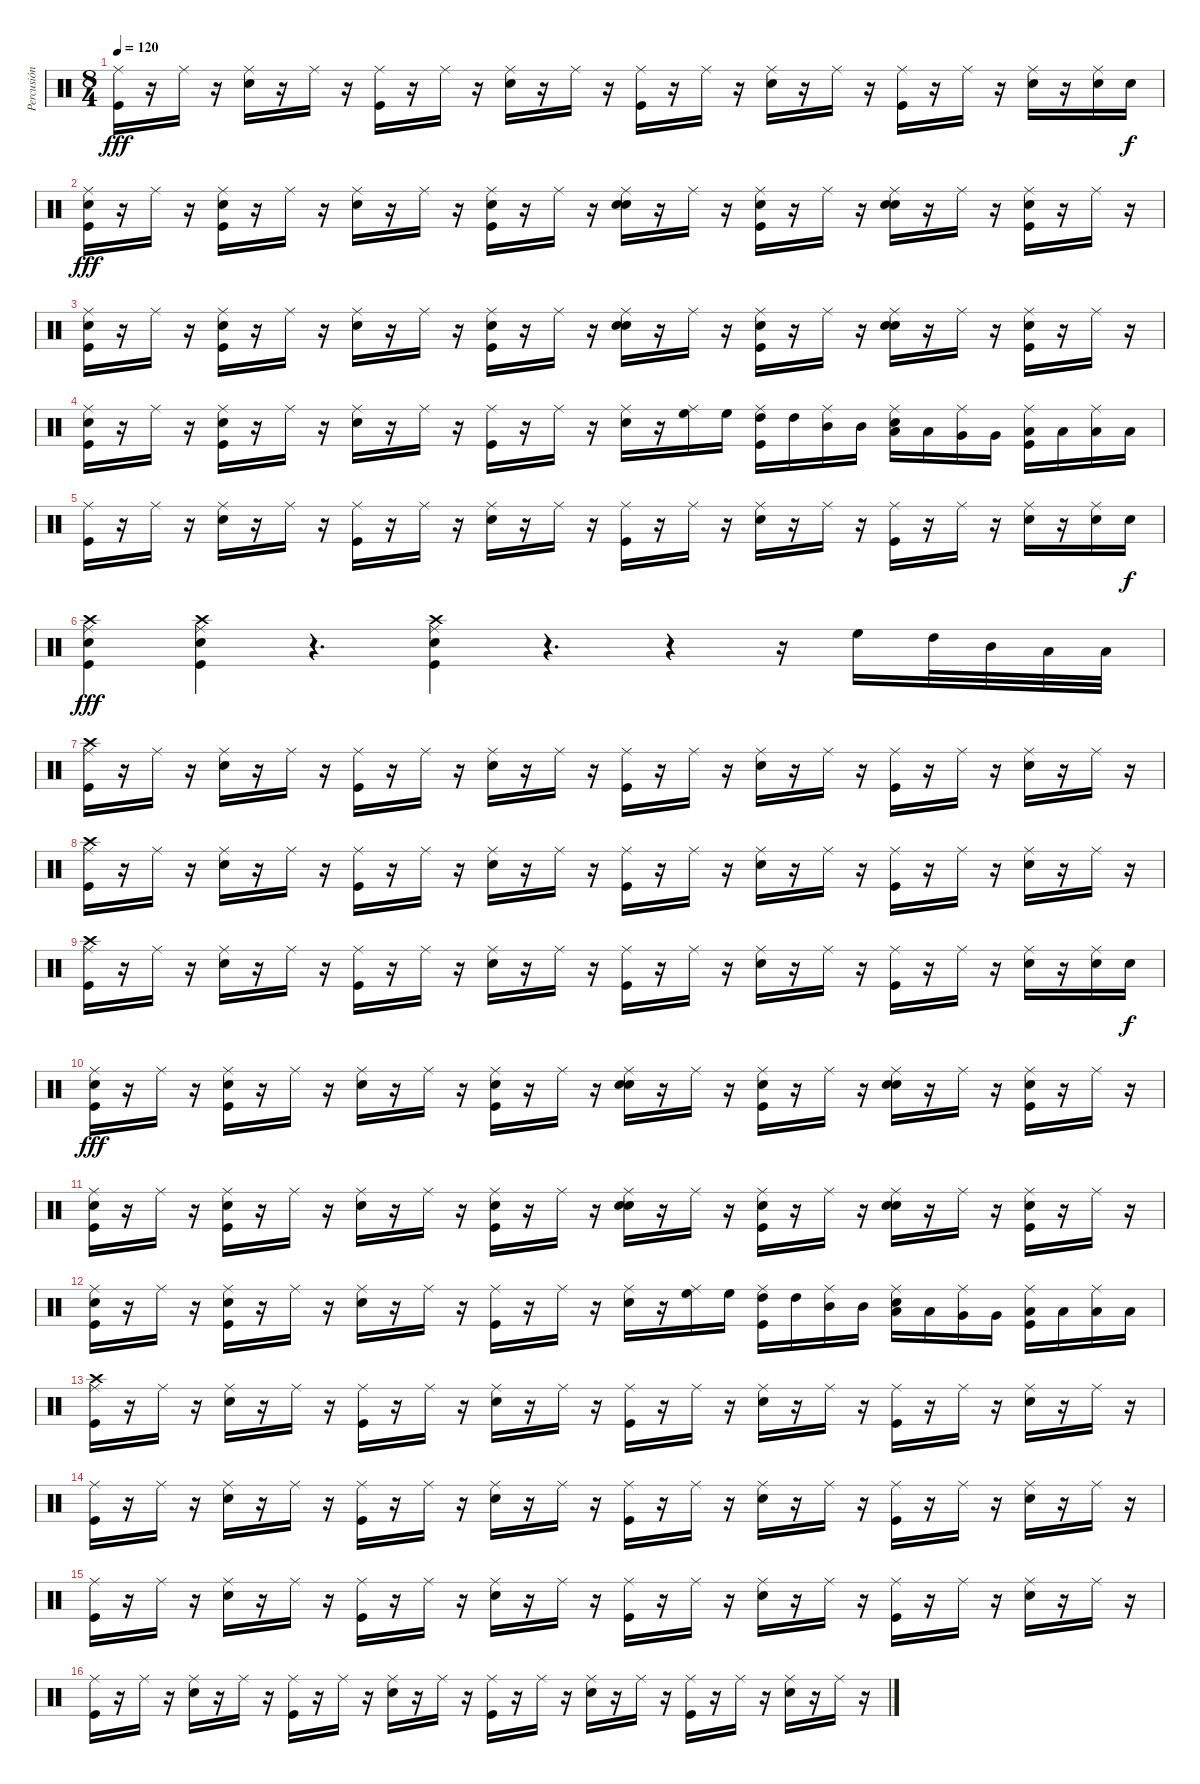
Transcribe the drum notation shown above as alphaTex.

\track ("Percusión" "Percusión") {instrument percussion}
\staff {score}
\articulation defaults
\ts (8 4)
\tempo 120
\clef neutral
\ks c
("Ride (middle)" "Kick (hit)").16{dy fff} r.16 "Ride (middle)".16 r.16 ("Snare (hit) 2" "Ride (middle)").16 r.16 "Ride (middle)".16 r.16 ("Kick (hit)" "Ride (middle)").16 r.16 "Ride (middle)".16 r.16 ("Snare (hit) 2" "Ride (middle)").16 r.16 "Ride (middle)".16 r.16 ("Kick (hit)" "Ride (middle)").16 r.16 "Ride (middle)".16 r.16 ("Snare (hit) 2" "Ride (middle)").16 r.16 "Ride (middle)".16 r.16 ("Kick (hit)" "Ride (middle)").16 r.16 "Ride (middle)".16 r.16 ("Snare (hit) 2" "Ride (middle)").16 r.16 ("Snare (hit) 2" "Ride (middle)").16 "Snare (hit) 2".16{dy f} |
("Snare (hit) 2" "Ride (middle)" "Kick (hit)").16{dy fff} r.16 "Ride (middle)".16 r.16 ("Kick (hit)" "Ride (middle)" "Snare (hit) 2").16 r.16 "Ride (middle)".16 r.16 ("Snare (hit) 2" "Ride (middle)").16 r.16 "Ride (middle)".16 r.16 ("Kick (hit)" "Ride (middle)" "Snare (hit) 2").16 r.16 "Ride (middle)".16 r.16 ("Snare (hit) 2" "Ride (middle)" "Snare (hit) 2").16 r.16 "Ride (middle)".16 r.16 ("Kick (hit)" "Ride (middle)" "Snare (hit) 2").16 r.16 "Ride (middle)".16 r.16 ("Snare (hit) 2" "Ride (middle)" "Snare (hit) 2").16 r.16 "Ride (middle)".16 r.16 ("Kick (hit)" "Ride (middle)" "Snare (hit) 2").16 r.16 "Ride (middle)".16 r.16 |
("Snare (hit) 2" "Ride (middle)" "Kick (hit)").16 r.16 "Ride (middle)".16 r.16 ("Kick (hit)" "Ride (middle)" "Snare (hit) 2").16 r.16 "Ride (middle)".16 r.16 ("Snare (hit) 2" "Ride (middle)").16 r.16 "Ride (middle)".16 r.16 ("Kick (hit)" "Ride (middle)" "Snare (hit) 2").16 r.16 "Ride (middle)".16 r.16 ("Snare (hit) 2" "Ride (middle)" "Snare (hit) 2").16 r.16 "Ride (middle)".16 r.16 ("Kick (hit)" "Ride (middle)" "Snare (hit) 2").16 r.16 "Ride (middle)".16 r.16 ("Snare (hit) 2" "Ride (middle)" "Snare (hit) 2").16 r.16 "Ride (middle)".16 r.16 ("Kick (hit)" "Ride (middle)" "Snare (hit) 2").16 r.16 "Ride (middle)".16 r.16 |
("Snare (hit) 2" "Ride (middle)" "Kick (hit)").16 r.16 "Ride (middle)".16 r.16 ("Kick (hit)" "Ride (middle)" "Snare (hit) 2").16 r.16 "Ride (middle)".16 r.16 ("Snare (hit) 2" "Ride (middle)").16 r.16 "Ride (middle)".16 r.16 ("Kick (hit)" "Ride (middle)").16 r.16 "Ride (middle)".16 r.16 ("Snare (hit) 2" "Ride (middle)").16 r.16 ("Ride (middle)" "High Floor Tom (hit)").16 "High Floor Tom (hit)".16 ("Kick (hit)" "Ride (middle)" "High Tom (hit)").16 "High Tom (hit)".16 ("Ride (middle)" "Mid Tom (hit)").16 "Mid Tom (hit)".16 ("Snare (hit) 2" "Ride (middle)" "Low Tom (hit)").16 "Low Tom (hit)".16 ("Ride (middle)" "Very Low Tom (hit)").16 "Very Low Tom (hit)".16 ("Kick (hit)" "Ride (middle)" "Low Floor Tom (hit)").16 "Low Floor Tom (hit)".16 ("Ride (middle)" "Low Floor Tom (hit)").16 "Low Floor Tom (hit)".16 |
("Ride (middle)" "Kick (hit)").16 r.16 "Ride (middle)".16 r.16 ("Snare (hit) 2" "Ride (middle)").16 r.16 "Ride (middle)".16 r.16 ("Kick (hit)" "Ride (middle)").16 r.16 "Ride (middle)".16 r.16 ("Snare (hit) 2" "Ride (middle)").16 r.16 "Ride (middle)".16 r.16 ("Kick (hit)" "Ride (middle)").16 r.16 "Ride (middle)".16 r.16 ("Snare (hit) 2" "Ride (middle)").16 r.16 "Ride (middle)".16 r.16 ("Kick (hit)" "Ride (middle)").16 r.16 "Ride (middle)".16 r.16 ("Snare (hit) 2" "Ride (middle)").16 r.16 ("Snare (hit) 2" "Ride (middle)").16 "Snare (hit) 2".16{dy f} |
("Snare (hit) 2" "Ride (middle)" "Crash high (hit)" "Kick (hit)").4{dy fff} ("Snare (hit) 2" "Ride (middle)" "Crash high (hit)" "Kick (hit)").4 r.4{d} ("Snare (hit) 2" "Ride (middle)" "Crash high (hit)" "Kick (hit)").4 r.4{d} r.4 r.16 "High Floor Tom (hit)".16 "High Tom (hit)".32 "Mid Tom (hit)".32 "Low Tom (hit)".32 "Low Floor Tom (hit)".32 |
("Crash high (hit)" "Ride (middle)" "Kick (hit)").16 r.16 "Ride (middle)".16 r.16 ("Snare (hit) 2" "Ride (middle)").16 r.16 "Ride (middle)".16 r.16 ("Kick (hit)" "Ride (middle)").16 r.16 "Ride (middle)".16 r.16 ("Snare (hit) 2" "Ride (middle)").16 r.16 "Ride (middle)".16 r.16 ("Kick (hit)" "Ride (middle)").16 r.16 "Ride (middle)".16 r.16 ("Snare (hit) 2" "Ride (middle)").16 r.16 "Ride (middle)".16 r.16 ("Kick (hit)" "Ride (middle)").16 r.16 "Ride (middle)".16 r.16 ("Snare (hit) 2" "Ride (middle)").16 r.16 "Ride (middle)".16 r.16 |
("Crash high (hit)" "Ride (middle)" "Kick (hit)").16 r.16 "Ride (middle)".16 r.16 ("Snare (hit) 2" "Ride (middle)").16 r.16 "Ride (middle)".16 r.16 ("Kick (hit)" "Ride (middle)").16 r.16 "Ride (middle)".16 r.16 ("Snare (hit) 2" "Ride (middle)").16 r.16 "Ride (middle)".16 r.16 ("Kick (hit)" "Ride (middle)").16 r.16 "Ride (middle)".16 r.16 ("Snare (hit) 2" "Ride (middle)").16 r.16 "Ride (middle)".16 r.16 ("Kick (hit)" "Ride (middle)").16 r.16 "Ride (middle)".16 r.16 ("Snare (hit) 2" "Ride (middle)").16 r.16 "Ride (middle)".16 r.16 |
("Crash high (hit)" "Ride (middle)" "Kick (hit)").16 r.16 "Ride (middle)".16 r.16 ("Snare (hit) 2" "Ride (middle)").16 r.16 "Ride (middle)".16 r.16 ("Kick (hit)" "Ride (middle)").16 r.16 "Ride (middle)".16 r.16 ("Snare (hit) 2" "Ride (middle)").16 r.16 "Ride (middle)".16 r.16 ("Kick (hit)" "Ride (middle)").16 r.16 "Ride (middle)".16 r.16 ("Snare (hit) 2" "Ride (middle)").16 r.16 "Ride (middle)".16 r.16 ("Kick (hit)" "Ride (middle)").16 r.16 "Ride (middle)".16 r.16 ("Snare (hit) 2" "Ride (middle)").16 r.16 ("Snare (hit) 2" "Ride (middle)").16 "Snare (hit) 2".16{dy f} |
("Snare (hit) 2" "Ride (middle)" "Kick (hit)").16{dy fff} r.16 "Ride (middle)".16 r.16 ("Kick (hit)" "Ride (middle)" "Snare (hit) 2").16 r.16 "Ride (middle)".16 r.16 ("Snare (hit) 2" "Ride (middle)").16 r.16 "Ride (middle)".16 r.16 ("Kick (hit)" "Ride (middle)" "Snare (hit) 2").16 r.16 "Ride (middle)".16 r.16 ("Snare (hit) 2" "Ride (middle)" "Snare (hit) 2").16 r.16 "Ride (middle)".16 r.16 ("Kick (hit)" "Ride (middle)" "Snare (hit) 2").16 r.16 "Ride (middle)".16 r.16 ("Snare (hit) 2" "Ride (middle)" "Snare (hit) 2").16 r.16 "Ride (middle)".16 r.16 ("Kick (hit)" "Ride (middle)" "Snare (hit) 2").16 r.16 "Ride (middle)".16 r.16 |
("Snare (hit) 2" "Ride (middle)" "Kick (hit)").16 r.16 "Ride (middle)".16 r.16 ("Kick (hit)" "Ride (middle)" "Snare (hit) 2").16 r.16 "Ride (middle)".16 r.16 ("Snare (hit) 2" "Ride (middle)").16 r.16 "Ride (middle)".16 r.16 ("Kick (hit)" "Ride (middle)" "Snare (hit) 2").16 r.16 "Ride (middle)".16 r.16 ("Snare (hit) 2" "Ride (middle)" "Snare (hit) 2").16 r.16 "Ride (middle)".16 r.16 ("Kick (hit)" "Ride (middle)" "Snare (hit) 2").16 r.16 "Ride (middle)".16 r.16 ("Snare (hit) 2" "Ride (middle)" "Snare (hit) 2").16 r.16 "Ride (middle)".16 r.16 ("Kick (hit)" "Ride (middle)" "Snare (hit) 2").16 r.16 "Ride (middle)".16 r.16 |
("Snare (hit) 2" "Ride (middle)" "Kick (hit)").16 r.16 "Ride (middle)".16 r.16 ("Kick (hit)" "Ride (middle)" "Snare (hit) 2").16 r.16 "Ride (middle)".16 r.16 ("Snare (hit) 2" "Ride (middle)").16 r.16 "Ride (middle)".16 r.16 ("Kick (hit)" "Ride (middle)").16 r.16 "Ride (middle)".16 r.16 ("Snare (hit) 2" "Ride (middle)").16 r.16 ("Ride (middle)" "High Floor Tom (hit)").16 "High Floor Tom (hit)".16 ("Kick (hit)" "Ride (middle)" "High Tom (hit)").16 "High Tom (hit)".16 ("Ride (middle)" "Mid Tom (hit)").16 "Mid Tom (hit)".16 ("Snare (hit) 2" "Ride (middle)" "Low Tom (hit)").16 "Low Tom (hit)".16 ("Ride (middle)" "Very Low Tom (hit)").16 "Very Low Tom (hit)".16 ("Kick (hit)" "Ride (middle)" "Low Floor Tom (hit)").16 "Low Floor Tom (hit)".16 ("Ride (middle)" "Low Floor Tom (hit)").16 "Low Floor Tom (hit)".16 |
("Crash high (hit)" "Ride (middle)" "Kick (hit)").16 r.16 "Ride (middle)".16 r.16 ("Snare (hit) 2" "Ride (middle)").16 r.16 "Ride (middle)".16 r.16 ("Kick (hit)" "Ride (middle)").16 r.16 "Ride (middle)".16 r.16 ("Snare (hit) 2" "Ride (middle)").16 r.16 "Ride (middle)".16 r.16 ("Kick (hit)" "Ride (middle)").16 r.16 "Ride (middle)".16 r.16 ("Snare (hit) 2" "Ride (middle)").16 r.16 "Ride (middle)".16 r.16 ("Kick (hit)" "Ride (middle)").16 r.16 "Ride (middle)".16 r.16 ("Snare (hit) 2" "Ride (middle)").16 r.16 "Ride (middle)".16 r.16 |
("Ride (middle)" "Kick (hit)").16 r.16 "Ride (middle)".16 r.16 ("Snare (hit) 2" "Ride (middle)").16 r.16 "Ride (middle)".16 r.16 ("Kick (hit)" "Ride (middle)").16 r.16 "Ride (middle)".16 r.16 ("Snare (hit) 2" "Ride (middle)").16 r.16 "Ride (middle)".16 r.16 ("Kick (hit)" "Ride (middle)").16 r.16 "Ride (middle)".16 r.16 ("Snare (hit) 2" "Ride (middle)").16 r.16 "Ride (middle)".16 r.16 ("Kick (hit)" "Ride (middle)").16 r.16 "Ride (middle)".16 r.16 ("Snare (hit) 2" "Ride (middle)").16 r.16 "Ride (middle)".16 r.16 |
("Ride (middle)" "Kick (hit)").16 r.16 "Ride (middle)".16 r.16 ("Snare (hit) 2" "Ride (middle)").16 r.16 "Ride (middle)".16 r.16 ("Kick (hit)" "Ride (middle)").16 r.16 "Ride (middle)".16 r.16 ("Snare (hit) 2" "Ride (middle)").16 r.16 "Ride (middle)".16 r.16 ("Kick (hit)" "Ride (middle)").16 r.16 "Ride (middle)".16 r.16 ("Snare (hit) 2" "Ride (middle)").16 r.16 "Ride (middle)".16 r.16 ("Kick (hit)" "Ride (middle)").16 r.16 "Ride (middle)".16 r.16 ("Snare (hit) 2" "Ride (middle)").16 r.16 "Ride (middle)".16 r.16 |
("Ride (middle)" "Kick (hit)").16 r.16 "Ride (middle)".16 r.16 ("Snare (hit) 2" "Ride (middle)").16 r.16 "Ride (middle)".16 r.16 ("Kick (hit)" "Ride (middle)").16 r.16 "Ride (middle)".16 r.16 ("Snare (hit) 2" "Ride (middle)").16 r.16 "Ride (middle)".16 r.16 ("Kick (hit)" "Ride (middle)").16 r.16 "Ride (middle)".16 r.16 ("Snare (hit) 2" "Ride (middle)").16 r.16 "Ride (middle)".16 r.16 ("Kick (hit)" "Ride (middle)").16 r.16 "Ride (middle)".16 r.16 ("Snare (hit) 2" "Ride (middle)").16 r.16 "Ride (middle)".16 r.16
